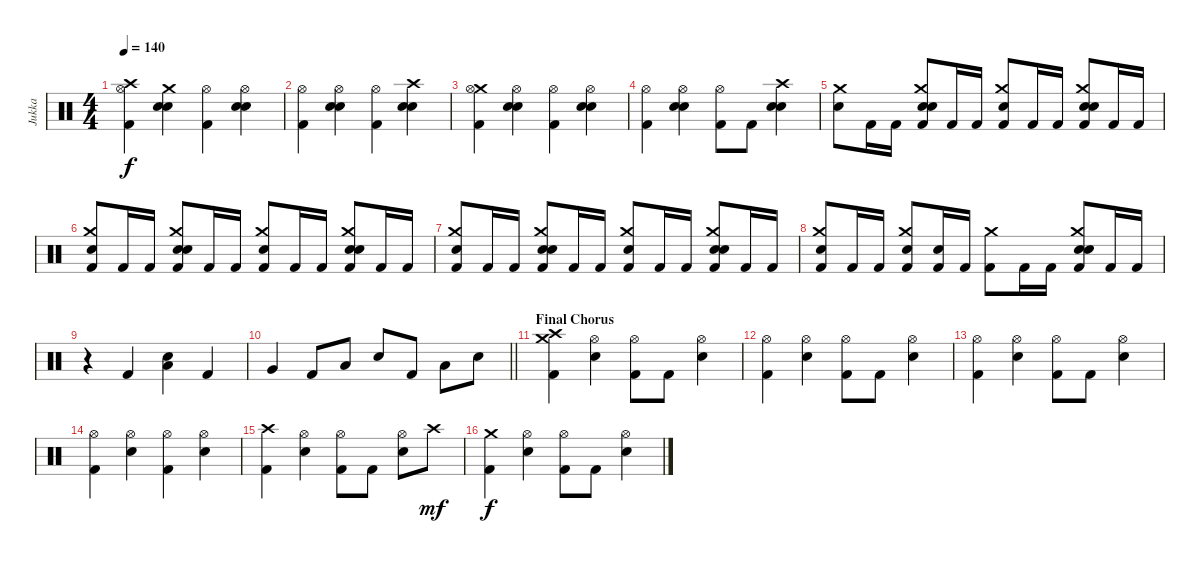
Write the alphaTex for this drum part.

\track ("Jukka" "Jukka") {instrument percussion}
\staff {score}
\articulation defaults
\ts (4 4)
\tempo 140
\clef neutral
\ks aminor
("Crash high (hit)" "Hi-Hat (open)" "Kick (hit) 2").4{dy f} ("Crash medium (hit)" "Hand Clap (hit)" "Electric Snare (hit)").4 ("Hi-Hat (open)" "Kick (hit) 2").4 ("Hi-Hat (open)" "Hand Clap (hit)" "Electric Snare (hit)").4 |
("Hi-Hat (open)" "Kick (hit) 2").4 ("Hi-Hat (open)" "Hand Clap (hit)" "Electric Snare (hit)").4 ("Hi-Hat (open)" "Kick (hit) 2").4 ("Crash high (hit)" "Hand Clap (hit)" "Electric Snare (hit)").4 |
("Crash medium (hit)" "Hi-Hat (open)" "Kick (hit) 2").4 ("Hi-Hat (open)" "Hand Clap (hit)" "Electric Snare (hit)").4 ("Hi-Hat (open)" "Kick (hit) 2").4 ("Hi-Hat (open)" "Hand Clap (hit)" "Electric Snare (hit)").4 |
("Hi-Hat (open)" "Kick (hit) 2").4 ("Hi-Hat (open)" "Hand Clap (hit)" "Electric Snare (hit)").4 ("Hi-Hat (open)" "Kick (hit) 2").8 "Kick (hit) 2".8 ("Crash high (hit)" "Hand Clap (hit)" "Electric Snare (hit)").4 |
("Crash medium (hit)" "Electric Snare (hit)").8 "Kick (hit) 2".16 "Kick (hit) 2".16 ("Crash medium (hit)" "Hand Clap (hit)" "Electric Snare (hit)" "Kick (hit) 2").8 "Kick (hit) 2".16 "Kick (hit) 2".16 ("Crash medium (hit)" "Electric Snare (hit)" "Kick (hit) 2").8 "Kick (hit) 2".16 "Kick (hit) 2".16 ("Crash medium (hit)" "Hand Clap (hit)" "Electric Snare (hit)" "Kick (hit) 2").8 "Kick (hit) 2".16 "Kick (hit) 2".16 |
("Crash medium (hit)" "Electric Snare (hit)" "Kick (hit) 2").8 "Kick (hit) 2".16 "Kick (hit) 2".16 ("Crash medium (hit)" "Hand Clap (hit)" "Electric Snare (hit)" "Kick (hit) 2").8 "Kick (hit) 2".16 "Kick (hit) 2".16 ("Crash medium (hit)" "Electric Snare (hit)" "Kick (hit) 2").8 "Kick (hit) 2".16 "Kick (hit) 2".16 ("Crash medium (hit)" "Hand Clap (hit)" "Electric Snare (hit)" "Kick (hit) 2").8 "Kick (hit) 2".16 "Kick (hit) 2".16 |
("Crash medium (hit)" "Electric Snare (hit)" "Kick (hit) 2").8 "Kick (hit) 2".16 "Kick (hit) 2".16 ("Crash medium (hit)" "Hand Clap (hit)" "Electric Snare (hit)" "Kick (hit) 2").8 "Kick (hit) 2".16 "Kick (hit) 2".16 ("Crash medium (hit)" "Electric Snare (hit)" "Kick (hit) 2").8 "Kick (hit) 2".16 "Kick (hit) 2".16 ("Crash medium (hit)" "Hand Clap (hit)" "Electric Snare (hit)" "Kick (hit) 2").8 "Kick (hit) 2".16 "Kick (hit) 2".16 |
("Crash medium (hit)" "Electric Snare (hit)" "Kick (hit) 2").8 "Kick (hit) 2".16 "Kick (hit) 2".16 ("Crash medium (hit)" "Hand Clap (hit)" "Kick (hit) 2").8 ("Electric Snare (hit)" "Kick (hit) 2").16 "Kick (hit) 2".16 ("Crash medium (hit)" "Kick (hit) 2").8 "Kick (hit) 2".16 "Kick (hit) 2".16 ("Crash medium (hit)" "Hand Clap (hit)" "Electric Snare (hit)" "Kick (hit) 2").8 "Kick (hit) 2".16 "Kick (hit) 2".16 |
r.4 "Kick (hit) 2".4 ("Electric Snare (hit)" "Low Floor Tom (hit)").4 "Kick (hit) 2".4 |
\barLineRight lightlight "Very Low Tom (hit)".4 "Kick (hit) 2".8 "Low Floor Tom (hit)".8 "Electric Snare (hit)".8 "Kick (hit) 2".8 "Low Floor Tom (hit)".8 "Electric Snare (hit)".8
|
\section ("" "Final Chorus")
("Crash medium (hit)" "Crash high (hit)" "Kick (hit) 2").4 ("Hi-Hat (open)" "Electric Snare (hit)").4 ("Hi-Hat (open)" "Kick (hit) 2").8 "Kick (hit) 2".8 ("Hi-Hat (open)" "Electric Snare (hit)").4 |
("Hi-Hat (open)" "Kick (hit) 2").4 ("Hi-Hat (open)" "Electric Snare (hit)").4 ("Hi-Hat (open)" "Kick (hit) 2").8 "Kick (hit) 2".8 ("Hi-Hat (open)" "Electric Snare (hit)").4 |
("Hi-Hat (open)" "Kick (hit) 2").4 ("Hi-Hat (open)" "Electric Snare (hit)").4 ("Hi-Hat (open)" "Kick (hit) 2").8 "Kick (hit) 2".8 ("Hi-Hat (open)" "Electric Snare (hit)").4 |
("Hi-Hat (open)" "Kick (hit) 2").4 ("Hi-Hat (open)" "Electric Snare (hit)").4 ("Hi-Hat (open)" "Kick (hit) 2").4 ("Hi-Hat (open)" "Electric Snare (hit)").4 |
("Crash high (hit)" "Kick (hit) 2").4 ("Hi-Hat (open)" "Electric Snare (hit)").4 ("Hi-Hat (open)" "Kick (hit) 2").8 "Kick (hit) 2".8 ("Hi-Hat (open)" "Electric Snare (hit)").8 "Crash high (hit)".8{dy mf} |
("Crash medium (hit)" "Kick (hit) 2").4{dy f} ("Hi-Hat (open)" "Electric Snare (hit)").4 ("Hi-Hat (open)" "Kick (hit) 2").8 "Kick (hit) 2".8 ("Hi-Hat (open)" "Electric Snare (hit)").4
